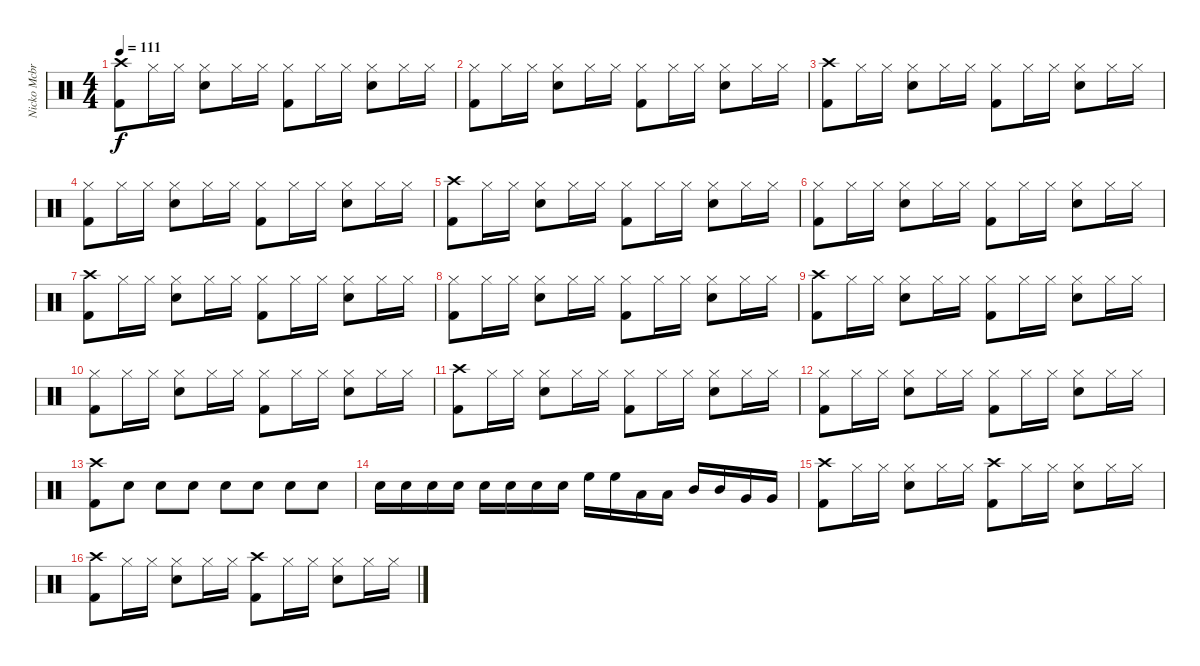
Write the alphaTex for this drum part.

\track ("Nicko Mcbrain" "Nicko Mcbr") {instrument percussion}
\staff {score}
\articulation defaults
\ts (4 4)
\tempo 111
\clef neutral
\ks c
("Crash high (hit)" "Kick (hit) 2").8{dy f} "Hi-Hat (closed)".16 "Hi-Hat (closed)".16 ("Hi-Hat (closed)" "Snare (hit) 2").8 "Hi-Hat (closed)".16 "Hi-Hat (closed)".16 ("Hi-Hat (closed)" "Kick (hit) 2").8 "Hi-Hat (closed)".16 "Hi-Hat (closed)".16 ("Hi-Hat (closed)" "Snare (hit) 2").8 "Hi-Hat (closed)".16 "Hi-Hat (closed)".16 |
("Hi-Hat (closed)" "Kick (hit) 2").8 "Hi-Hat (closed)".16 "Hi-Hat (closed)".16 ("Hi-Hat (closed)" "Snare (hit) 2").8 "Hi-Hat (closed)".16 "Hi-Hat (closed)".16 ("Hi-Hat (closed)" "Kick (hit) 2").8 "Hi-Hat (closed)".16 "Hi-Hat (closed)".16 ("Hi-Hat (closed)" "Snare (hit) 2").8 "Hi-Hat (closed)".16 "Hi-Hat (closed)".16 |
("Crash high (hit)" "Kick (hit) 2").8 "Hi-Hat (closed)".16 "Hi-Hat (closed)".16 ("Hi-Hat (closed)" "Snare (hit) 2").8 "Hi-Hat (closed)".16 "Hi-Hat (closed)".16 ("Hi-Hat (closed)" "Kick (hit) 2").8 "Hi-Hat (closed)".16 "Hi-Hat (closed)".16 ("Hi-Hat (closed)" "Snare (hit) 2").8 "Hi-Hat (closed)".16 "Hi-Hat (closed)".16 |
("Hi-Hat (closed)" "Kick (hit) 2").8 "Hi-Hat (closed)".16 "Hi-Hat (closed)".16 ("Hi-Hat (closed)" "Snare (hit) 2").8 "Hi-Hat (closed)".16 "Hi-Hat (closed)".16 ("Hi-Hat (closed)" "Kick (hit) 2").8 "Hi-Hat (closed)".16 "Hi-Hat (closed)".16 ("Hi-Hat (closed)" "Snare (hit) 2").8 "Hi-Hat (closed)".16 "Hi-Hat (closed)".16 |
("Crash high (hit)" "Kick (hit) 2").8 "Hi-Hat (closed)".16 "Hi-Hat (closed)".16 ("Hi-Hat (closed)" "Snare (hit) 2").8 "Hi-Hat (closed)".16 "Hi-Hat (closed)".16 ("Hi-Hat (closed)" "Kick (hit) 2").8 "Hi-Hat (closed)".16 "Hi-Hat (closed)".16 ("Hi-Hat (closed)" "Snare (hit) 2").8 "Hi-Hat (closed)".16 "Hi-Hat (closed)".16 |
("Hi-Hat (closed)" "Kick (hit) 2").8 "Hi-Hat (closed)".16 "Hi-Hat (closed)".16 ("Hi-Hat (closed)" "Snare (hit) 2").8 "Hi-Hat (closed)".16 "Hi-Hat (closed)".16 ("Hi-Hat (closed)" "Kick (hit) 2").8 "Hi-Hat (closed)".16 "Hi-Hat (closed)".16 ("Hi-Hat (closed)" "Snare (hit) 2").8 "Hi-Hat (closed)".16 "Hi-Hat (closed)".16 |
("Crash high (hit)" "Kick (hit) 2").8 "Hi-Hat (closed)".16 "Hi-Hat (closed)".16 ("Hi-Hat (closed)" "Snare (hit) 2").8 "Hi-Hat (closed)".16 "Hi-Hat (closed)".16 ("Hi-Hat (closed)" "Kick (hit) 2").8 "Hi-Hat (closed)".16 "Hi-Hat (closed)".16 ("Hi-Hat (closed)" "Snare (hit) 2").8 "Hi-Hat (closed)".16 "Hi-Hat (closed)".16 |
("Hi-Hat (closed)" "Kick (hit) 2").8 "Hi-Hat (closed)".16 "Hi-Hat (closed)".16 ("Hi-Hat (closed)" "Snare (hit) 2").8 "Hi-Hat (closed)".16 "Hi-Hat (closed)".16 ("Hi-Hat (closed)" "Kick (hit) 2").8 "Hi-Hat (closed)".16 "Hi-Hat (closed)".16 ("Hi-Hat (closed)" "Snare (hit) 2").8 "Hi-Hat (closed)".16 "Hi-Hat (closed)".16 |
("Crash high (hit)" "Kick (hit) 2").8 "Hi-Hat (closed)".16 "Hi-Hat (closed)".16 ("Hi-Hat (closed)" "Snare (hit) 2").8 "Hi-Hat (closed)".16 "Hi-Hat (closed)".16 ("Hi-Hat (closed)" "Kick (hit) 2").8 "Hi-Hat (closed)".16 "Hi-Hat (closed)".16 ("Hi-Hat (closed)" "Snare (hit) 2").8 "Hi-Hat (closed)".16 "Hi-Hat (closed)".16 |
("Hi-Hat (closed)" "Kick (hit) 2").8 "Hi-Hat (closed)".16 "Hi-Hat (closed)".16 ("Hi-Hat (closed)" "Snare (hit) 2").8 "Hi-Hat (closed)".16 "Hi-Hat (closed)".16 ("Hi-Hat (closed)" "Kick (hit) 2").8 "Hi-Hat (closed)".16 "Hi-Hat (closed)".16 ("Hi-Hat (closed)" "Snare (hit) 2").8 "Hi-Hat (closed)".16 "Hi-Hat (closed)".16 |
("Crash high (hit)" "Kick (hit) 2").8 "Hi-Hat (closed)".16 "Hi-Hat (closed)".16 ("Hi-Hat (closed)" "Snare (hit) 2").8 "Hi-Hat (closed)".16 "Hi-Hat (closed)".16 ("Hi-Hat (closed)" "Kick (hit) 2").8 "Hi-Hat (closed)".16 "Hi-Hat (closed)".16 ("Hi-Hat (closed)" "Snare (hit) 2").8 "Hi-Hat (closed)".16 "Hi-Hat (closed)".16 |
("Hi-Hat (closed)" "Kick (hit) 2").8 "Hi-Hat (closed)".16 "Hi-Hat (closed)".16 ("Hi-Hat (closed)" "Snare (hit) 2").8 "Hi-Hat (closed)".16 "Hi-Hat (closed)".16 ("Hi-Hat (closed)" "Kick (hit) 2").8 "Hi-Hat (closed)".16 "Hi-Hat (closed)".16 ("Hi-Hat (closed)" "Snare (hit) 2").8 "Hi-Hat (closed)".16 "Hi-Hat (closed)".16 |
("Crash high (hit)" "Kick (hit) 2").8 "Snare (hit) 2".8 "Snare (hit) 2".8 "Snare (hit) 2".8 "Snare (hit) 2".8 "Snare (hit) 2".8 "Snare (hit) 2".8 "Snare (hit) 2".8 |
"Snare (hit) 2".16 "Snare (hit) 2".16 "Snare (hit) 2".16 "Snare (hit) 2".16 "Snare (hit) 2".16 "Snare (hit) 2".16 "Snare (hit) 2".16 "Snare (hit) 2".16 "High Floor Tom (hit)".16 "High Floor Tom (hit)".16 "Low Tom (hit)".16 "Low Tom (hit)".16 "Mid Tom (hit)".16 "Mid Tom (hit)".16 "Very Low Tom (hit)".16 "Very Low Tom (hit)".16 |
("Crash high (hit)" "Kick (hit) 2").8 "Hi-Hat (closed)".16 "Hi-Hat (closed)".16 ("Hi-Hat (closed)" "Snare (hit) 2").8 "Hi-Hat (closed)".16 "Hi-Hat (closed)".16 ("Crash high (hit)" "Kick (hit) 2").8 "Hi-Hat (closed)".16 "Hi-Hat (closed)".16 ("Hi-Hat (closed)" "Snare (hit) 2").8 "Hi-Hat (closed)".16 "Hi-Hat (closed)".16 |
("Crash high (hit)" "Kick (hit) 2").8 "Hi-Hat (closed)".16 "Hi-Hat (closed)".16 ("Hi-Hat (closed)" "Snare (hit) 2").8 "Hi-Hat (closed)".16 "Hi-Hat (closed)".16 ("Crash high (hit)" "Kick (hit) 2").8 "Hi-Hat (closed)".16 "Hi-Hat (closed)".16 ("Hi-Hat (closed)" "Snare (hit) 2").8 "Hi-Hat (closed)".16 "Hi-Hat (closed)".16
